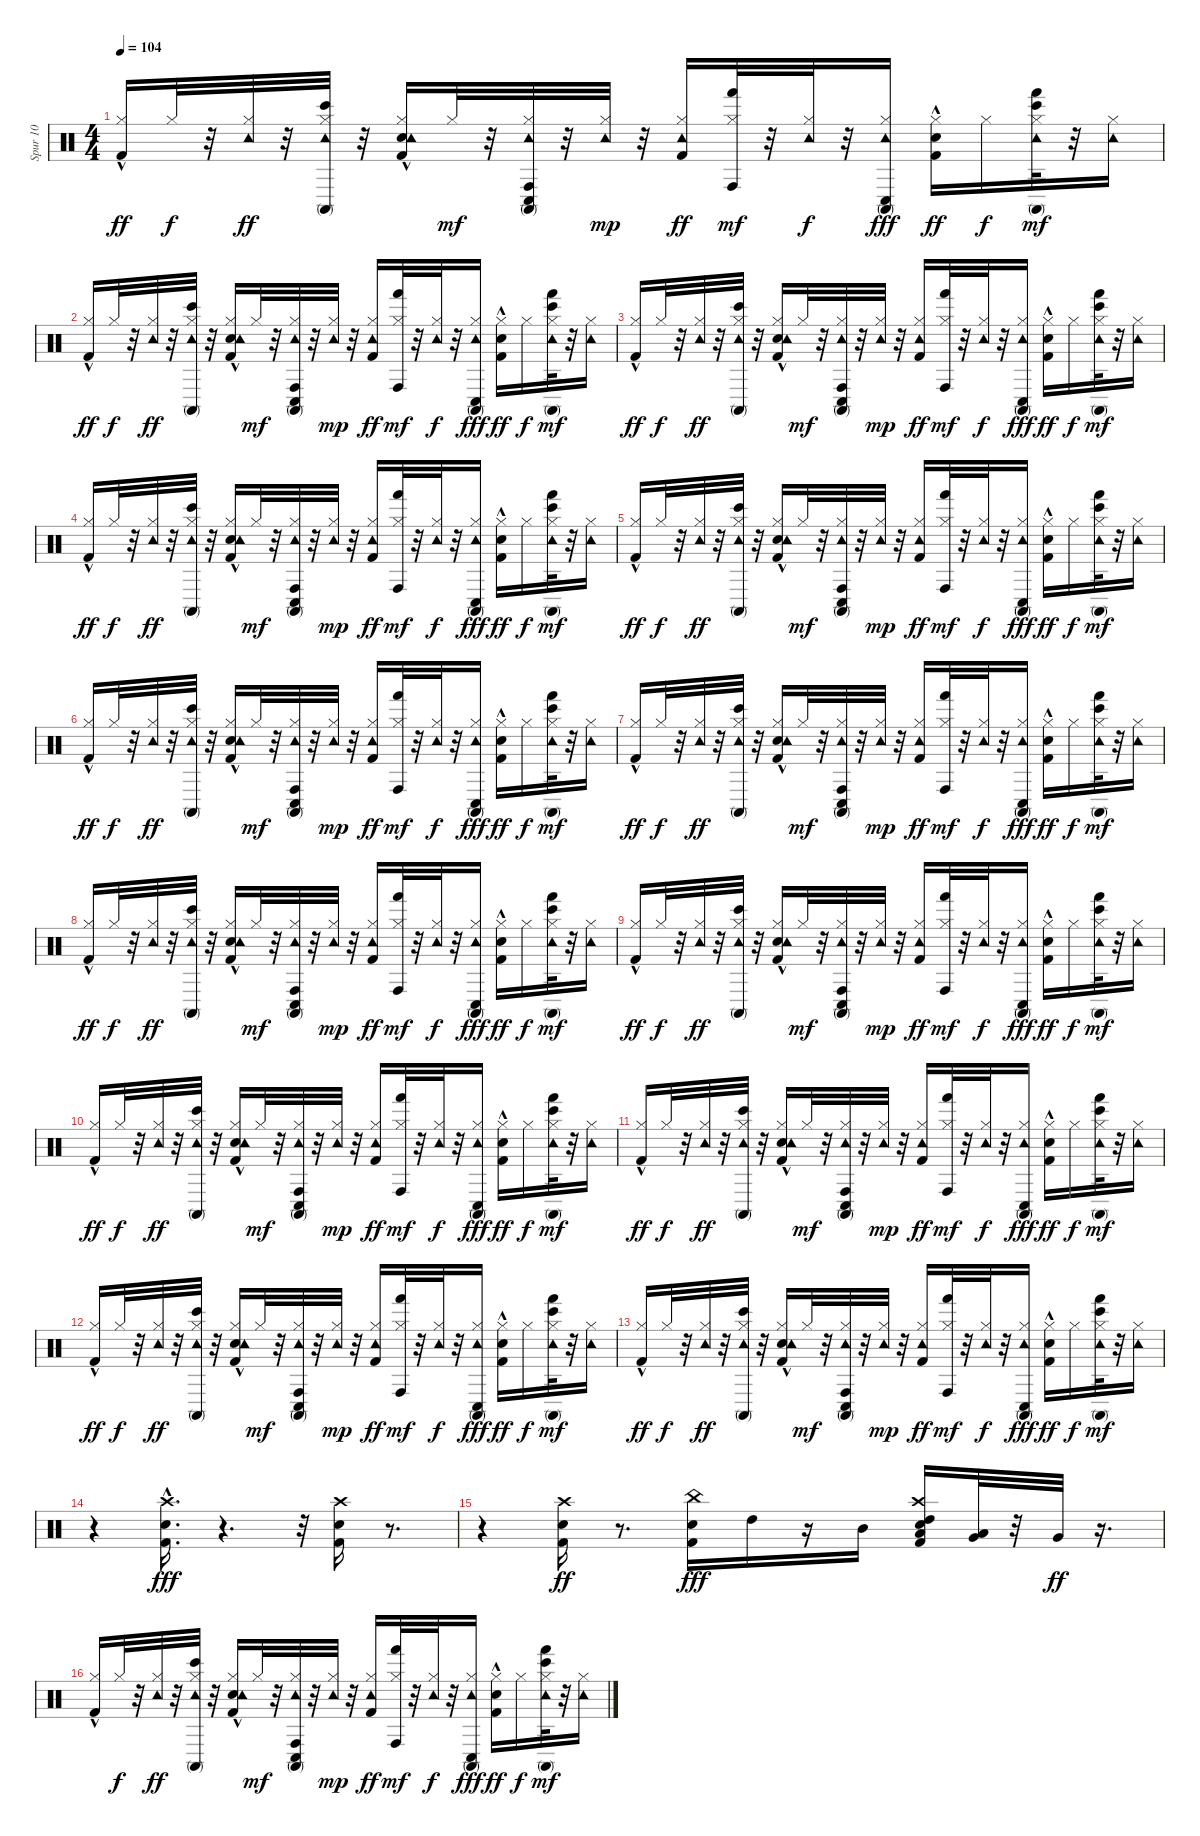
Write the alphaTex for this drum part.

\track ("Spur 10" "Spur 10") {instrument percussion}
\staff {score}
\articulation defaults
\ts (4 4)
\tempo 104
\clef neutral
\ks c
("Kick (hit) 2"{hac} "Hi-Hat (closed)").16{dy ff} "Hi-Hat (closed)".32{dy f} r.32 ("Tambourine (hit)" "Hi-Hat (closed)").32{dy ff} r.32 ("Bongo High (hit)" "Conga high (mute)" "Tambourine (hit)" "Hi-Hat (closed)").32 r.32 ("Electric Snare (hit)" "Kick (hit) 2"{hac} "Tambourine (hit)" "Hi-Hat (closed)").16 "Hi-Hat (closed)".32{dy mf} r.32 ("Conga high (hit)" "Conga low (hit)" "Conga high (mute)" "Tambourine (hit)" "Hi-Hat (closed)").32 r.32 ("Tambourine (hit)" "Hi-Hat (closed)").32{dy mp} r.32 ("Kick (hit) 2" "Tambourine (hit)" "Hi-Hat (closed)").16{dy ff} ("Hand (hit)" "Conga high (hit)" "Hi-Hat (closed)").32{dy mf} r.32 ("Tambourine (hit)" "Hi-Hat (closed)").32{dy f} r.32 ("Conga high (mute)" "Conga low (hit)" "Tambourine (hit)" "Hi-Hat (closed)").16{dy fff} ("Electric Snare (hit)"{hac} "Kick (hit) 2" "Hi-Hat (closed)").16{dy ff} "Hi-Hat (closed)".16{dy f} ("Hand (hit)" "Bongo High (hit)" "Conga high (mute)" "Tambourine (hit)" "Hi-Hat (closed)").32{dy mf} r.32 ("Tambourine (hit)" "Hi-Hat (closed)").16 |
("Kick (hit) 2"{hac} "Hi-Hat (closed)").16{dy ff} "Hi-Hat (closed)".32{dy f} r.32 ("Tambourine (hit)" "Hi-Hat (closed)").32{dy ff} r.32 ("Bongo High (hit)" "Conga high (mute)" "Tambourine (hit)" "Hi-Hat (closed)").32 r.32 ("Electric Snare (hit)" "Kick (hit) 2"{hac} "Tambourine (hit)" "Hi-Hat (closed)").16 "Hi-Hat (closed)".32{dy mf} r.32 ("Conga high (hit)" "Conga low (hit)" "Conga high (mute)" "Tambourine (hit)" "Hi-Hat (closed)").32 r.32 ("Tambourine (hit)" "Hi-Hat (closed)").32{dy mp} r.32 ("Kick (hit) 2" "Tambourine (hit)" "Hi-Hat (closed)").16{dy ff} ("Hand (hit)" "Conga high (hit)" "Hi-Hat (closed)").32{dy mf} r.32 ("Tambourine (hit)" "Hi-Hat (closed)").32{dy f} r.32 ("Conga high (mute)" "Conga low (hit)" "Tambourine (hit)" "Hi-Hat (closed)").16{dy fff} ("Electric Snare (hit)"{hac} "Kick (hit) 2" "Hi-Hat (closed)").16{dy ff} "Hi-Hat (closed)".16{dy f} ("Hand (hit)" "Bongo High (hit)" "Conga high (mute)" "Tambourine (hit)" "Hi-Hat (closed)").32{dy mf} r.32 ("Tambourine (hit)" "Hi-Hat (closed)").16 |
("Kick (hit) 2"{hac} "Hi-Hat (closed)").16{dy ff} "Hi-Hat (closed)".32{dy f} r.32 ("Tambourine (hit)" "Hi-Hat (closed)").32{dy ff} r.32 ("Bongo High (hit)" "Conga high (mute)" "Tambourine (hit)" "Hi-Hat (closed)").32 r.32 ("Electric Snare (hit)" "Kick (hit) 2"{hac} "Tambourine (hit)" "Hi-Hat (closed)").16 "Hi-Hat (closed)".32{dy mf} r.32 ("Conga high (hit)" "Conga low (hit)" "Conga high (mute)" "Tambourine (hit)" "Hi-Hat (closed)").32 r.32 ("Tambourine (hit)" "Hi-Hat (closed)").32{dy mp} r.32 ("Kick (hit) 2" "Tambourine (hit)" "Hi-Hat (closed)").16{dy ff} ("Hand (hit)" "Conga high (hit)" "Hi-Hat (closed)").32{dy mf} r.32 ("Tambourine (hit)" "Hi-Hat (closed)").32{dy f} r.32 ("Conga high (mute)" "Conga low (hit)" "Tambourine (hit)" "Hi-Hat (closed)").16{dy fff} ("Electric Snare (hit)"{hac} "Kick (hit) 2" "Hi-Hat (closed)").16{dy ff} "Hi-Hat (closed)".16{dy f} ("Hand (hit)" "Bongo High (hit)" "Conga high (mute)" "Tambourine (hit)" "Hi-Hat (closed)").32{dy mf} r.32 ("Tambourine (hit)" "Hi-Hat (closed)").16 |
("Kick (hit) 2"{hac} "Hi-Hat (closed)").16{dy ff} "Hi-Hat (closed)".32{dy f} r.32 ("Tambourine (hit)" "Hi-Hat (closed)").32{dy ff} r.32 ("Bongo High (hit)" "Conga high (mute)" "Tambourine (hit)" "Hi-Hat (closed)").32 r.32 ("Electric Snare (hit)" "Kick (hit) 2"{hac} "Tambourine (hit)" "Hi-Hat (closed)").16 "Hi-Hat (closed)".32{dy mf} r.32 ("Conga high (hit)" "Conga low (hit)" "Conga high (mute)" "Tambourine (hit)" "Hi-Hat (closed)").32 r.32 ("Tambourine (hit)" "Hi-Hat (closed)").32{dy mp} r.32 ("Kick (hit) 2" "Tambourine (hit)" "Hi-Hat (closed)").16{dy ff} ("Hand (hit)" "Conga high (hit)" "Hi-Hat (closed)").32{dy mf} r.32 ("Tambourine (hit)" "Hi-Hat (closed)").32{dy f} r.32 ("Conga high (mute)" "Conga low (hit)" "Tambourine (hit)" "Hi-Hat (closed)").16{dy fff} ("Electric Snare (hit)"{hac} "Kick (hit) 2" "Hi-Hat (closed)").16{dy ff} "Hi-Hat (closed)".16{dy f} ("Hand (hit)" "Bongo High (hit)" "Conga high (mute)" "Tambourine (hit)" "Hi-Hat (closed)").32{dy mf} r.32 ("Tambourine (hit)" "Hi-Hat (closed)").16 |
("Kick (hit) 2"{hac} "Hi-Hat (closed)").16{dy ff} "Hi-Hat (closed)".32{dy f} r.32 ("Tambourine (hit)" "Hi-Hat (closed)").32{dy ff} r.32 ("Bongo High (hit)" "Conga high (mute)" "Tambourine (hit)" "Hi-Hat (closed)").32 r.32 ("Electric Snare (hit)" "Kick (hit) 2"{hac} "Tambourine (hit)" "Hi-Hat (closed)").16 "Hi-Hat (closed)".32{dy mf} r.32 ("Conga high (hit)" "Conga low (hit)" "Conga high (mute)" "Tambourine (hit)" "Hi-Hat (closed)").32 r.32 ("Tambourine (hit)" "Hi-Hat (closed)").32{dy mp} r.32 ("Kick (hit) 2" "Tambourine (hit)" "Hi-Hat (closed)").16{dy ff} ("Hand (hit)" "Conga high (hit)" "Hi-Hat (closed)").32{dy mf} r.32 ("Tambourine (hit)" "Hi-Hat (closed)").32{dy f} r.32 ("Conga high (mute)" "Conga low (hit)" "Tambourine (hit)" "Hi-Hat (closed)").16{dy fff} ("Electric Snare (hit)"{hac} "Kick (hit) 2" "Hi-Hat (closed)").16{dy ff} "Hi-Hat (closed)".16{dy f} ("Hand (hit)" "Bongo High (hit)" "Conga high (mute)" "Tambourine (hit)" "Hi-Hat (closed)").32{dy mf} r.32 ("Tambourine (hit)" "Hi-Hat (closed)").16 |
("Kick (hit) 2"{hac} "Hi-Hat (closed)").16{dy ff} "Hi-Hat (closed)".32{dy f} r.32 ("Tambourine (hit)" "Hi-Hat (closed)").32{dy ff} r.32 ("Bongo High (hit)" "Conga high (mute)" "Tambourine (hit)" "Hi-Hat (closed)").32 r.32 ("Electric Snare (hit)" "Kick (hit) 2"{hac} "Tambourine (hit)" "Hi-Hat (closed)").16 "Hi-Hat (closed)".32{dy mf} r.32 ("Conga high (hit)" "Conga low (hit)" "Conga high (mute)" "Tambourine (hit)" "Hi-Hat (closed)").32 r.32 ("Tambourine (hit)" "Hi-Hat (closed)").32{dy mp} r.32 ("Kick (hit) 2" "Tambourine (hit)" "Hi-Hat (closed)").16{dy ff} ("Hand (hit)" "Conga high (hit)" "Hi-Hat (closed)").32{dy mf} r.32 ("Tambourine (hit)" "Hi-Hat (closed)").32{dy f} r.32 ("Conga high (mute)" "Conga low (hit)" "Tambourine (hit)" "Hi-Hat (closed)").16{dy fff} ("Electric Snare (hit)"{hac} "Kick (hit) 2" "Hi-Hat (closed)").16{dy ff} "Hi-Hat (closed)".16{dy f} ("Hand (hit)" "Bongo High (hit)" "Conga high (mute)" "Tambourine (hit)" "Hi-Hat (closed)").32{dy mf} r.32 ("Tambourine (hit)" "Hi-Hat (closed)").16 |
("Kick (hit) 2"{hac} "Hi-Hat (closed)").16{dy ff} "Hi-Hat (closed)".32{dy f} r.32 ("Tambourine (hit)" "Hi-Hat (closed)").32{dy ff} r.32 ("Bongo High (hit)" "Conga high (mute)" "Tambourine (hit)" "Hi-Hat (closed)").32 r.32 ("Electric Snare (hit)" "Kick (hit) 2"{hac} "Tambourine (hit)" "Hi-Hat (closed)").16 "Hi-Hat (closed)".32{dy mf} r.32 ("Conga high (hit)" "Conga low (hit)" "Conga high (mute)" "Tambourine (hit)" "Hi-Hat (closed)").32 r.32 ("Tambourine (hit)" "Hi-Hat (closed)").32{dy mp} r.32 ("Kick (hit) 2" "Tambourine (hit)" "Hi-Hat (closed)").16{dy ff} ("Hand (hit)" "Conga high (hit)" "Hi-Hat (closed)").32{dy mf} r.32 ("Tambourine (hit)" "Hi-Hat (closed)").32{dy f} r.32 ("Conga high (mute)" "Conga low (hit)" "Tambourine (hit)" "Hi-Hat (closed)").16{dy fff} ("Electric Snare (hit)"{hac} "Kick (hit) 2" "Hi-Hat (closed)").16{dy ff} "Hi-Hat (closed)".16{dy f} ("Hand (hit)" "Bongo High (hit)" "Conga high (mute)" "Tambourine (hit)" "Hi-Hat (closed)").32{dy mf} r.32 ("Tambourine (hit)" "Hi-Hat (closed)").16 |
("Kick (hit) 2"{hac} "Hi-Hat (closed)").16{dy ff} "Hi-Hat (closed)".32{dy f} r.32 ("Tambourine (hit)" "Hi-Hat (closed)").32{dy ff} r.32 ("Bongo High (hit)" "Conga high (mute)" "Tambourine (hit)" "Hi-Hat (closed)").32 r.32 ("Electric Snare (hit)" "Kick (hit) 2"{hac} "Tambourine (hit)" "Hi-Hat (closed)").16 "Hi-Hat (closed)".32{dy mf} r.32 ("Conga high (hit)" "Conga low (hit)" "Conga high (mute)" "Tambourine (hit)" "Hi-Hat (closed)").32 r.32 ("Tambourine (hit)" "Hi-Hat (closed)").32{dy mp} r.32 ("Kick (hit) 2" "Tambourine (hit)" "Hi-Hat (closed)").16{dy ff} ("Hand (hit)" "Conga high (hit)" "Hi-Hat (closed)").32{dy mf} r.32 ("Tambourine (hit)" "Hi-Hat (closed)").32{dy f} r.32 ("Conga high (mute)" "Conga low (hit)" "Tambourine (hit)" "Hi-Hat (closed)").16{dy fff} ("Electric Snare (hit)"{hac} "Kick (hit) 2" "Hi-Hat (closed)").16{dy ff} "Hi-Hat (closed)".16{dy f} ("Hand (hit)" "Bongo High (hit)" "Conga high (mute)" "Tambourine (hit)" "Hi-Hat (closed)").32{dy mf} r.32 ("Tambourine (hit)" "Hi-Hat (closed)").16 |
("Kick (hit) 2"{hac} "Hi-Hat (closed)").16{dy ff} "Hi-Hat (closed)".32{dy f} r.32 ("Tambourine (hit)" "Hi-Hat (closed)").32{dy ff} r.32 ("Bongo High (hit)" "Conga high (mute)" "Tambourine (hit)" "Hi-Hat (closed)").32 r.32 ("Electric Snare (hit)" "Kick (hit) 2"{hac} "Tambourine (hit)" "Hi-Hat (closed)").16 "Hi-Hat (closed)".32{dy mf} r.32 ("Conga high (hit)" "Conga low (hit)" "Conga high (mute)" "Tambourine (hit)" "Hi-Hat (closed)").32 r.32 ("Tambourine (hit)" "Hi-Hat (closed)").32{dy mp} r.32 ("Kick (hit) 2" "Tambourine (hit)" "Hi-Hat (closed)").16{dy ff} ("Hand (hit)" "Conga high (hit)" "Hi-Hat (closed)").32{dy mf} r.32 ("Tambourine (hit)" "Hi-Hat (closed)").32{dy f} r.32 ("Conga high (mute)" "Conga low (hit)" "Tambourine (hit)" "Hi-Hat (closed)").16{dy fff} ("Electric Snare (hit)"{hac} "Kick (hit) 2" "Hi-Hat (closed)").16{dy ff} "Hi-Hat (closed)".16{dy f} ("Hand (hit)" "Bongo High (hit)" "Conga high (mute)" "Tambourine (hit)" "Hi-Hat (closed)").32{dy mf} r.32 ("Tambourine (hit)" "Hi-Hat (closed)").16 |
("Kick (hit) 2"{hac} "Hi-Hat (closed)").16{dy ff} "Hi-Hat (closed)".32{dy f} r.32 ("Tambourine (hit)" "Hi-Hat (closed)").32{dy ff} r.32 ("Bongo High (hit)" "Conga high (mute)" "Tambourine (hit)" "Hi-Hat (closed)").32 r.32 ("Electric Snare (hit)" "Kick (hit) 2"{hac} "Tambourine (hit)" "Hi-Hat (closed)").16 "Hi-Hat (closed)".32{dy mf} r.32 ("Conga high (hit)" "Conga low (hit)" "Conga high (mute)" "Tambourine (hit)" "Hi-Hat (closed)").32 r.32 ("Tambourine (hit)" "Hi-Hat (closed)").32{dy mp} r.32 ("Kick (hit) 2" "Tambourine (hit)" "Hi-Hat (closed)").16{dy ff} ("Hand (hit)" "Conga high (hit)" "Hi-Hat (closed)").32{dy mf} r.32 ("Tambourine (hit)" "Hi-Hat (closed)").32{dy f} r.32 ("Conga high (mute)" "Conga low (hit)" "Tambourine (hit)" "Hi-Hat (closed)").16{dy fff} ("Electric Snare (hit)"{hac} "Kick (hit) 2" "Hi-Hat (closed)").16{dy ff} "Hi-Hat (closed)".16{dy f} ("Hand (hit)" "Bongo High (hit)" "Conga high (mute)" "Tambourine (hit)" "Hi-Hat (closed)").32{dy mf} r.32 ("Tambourine (hit)" "Hi-Hat (closed)").16 |
("Kick (hit) 2"{hac} "Hi-Hat (closed)").16{dy ff} "Hi-Hat (closed)".32{dy f} r.32 ("Tambourine (hit)" "Hi-Hat (closed)").32{dy ff} r.32 ("Bongo High (hit)" "Conga high (mute)" "Tambourine (hit)" "Hi-Hat (closed)").32 r.32 ("Electric Snare (hit)" "Kick (hit) 2"{hac} "Tambourine (hit)" "Hi-Hat (closed)").16 "Hi-Hat (closed)".32{dy mf} r.32 ("Conga high (hit)" "Conga low (hit)" "Conga high (mute)" "Tambourine (hit)" "Hi-Hat (closed)").32 r.32 ("Tambourine (hit)" "Hi-Hat (closed)").32{dy mp} r.32 ("Kick (hit) 2" "Tambourine (hit)" "Hi-Hat (closed)").16{dy ff} ("Hand (hit)" "Conga high (hit)" "Hi-Hat (closed)").32{dy mf} r.32 ("Tambourine (hit)" "Hi-Hat (closed)").32{dy f} r.32 ("Conga high (mute)" "Conga low (hit)" "Tambourine (hit)" "Hi-Hat (closed)").16{dy fff} ("Electric Snare (hit)"{hac} "Kick (hit) 2" "Hi-Hat (closed)").16{dy ff} "Hi-Hat (closed)".16{dy f} ("Hand (hit)" "Bongo High (hit)" "Conga high (mute)" "Tambourine (hit)" "Hi-Hat (closed)").32{dy mf} r.32 ("Tambourine (hit)" "Hi-Hat (closed)").16 |
("Kick (hit) 2"{hac} "Hi-Hat (closed)").16{dy ff} "Hi-Hat (closed)".32{dy f} r.32 ("Tambourine (hit)" "Hi-Hat (closed)").32{dy ff} r.32 ("Bongo High (hit)" "Conga high (mute)" "Tambourine (hit)" "Hi-Hat (closed)").32 r.32 ("Electric Snare (hit)" "Kick (hit) 2"{hac} "Tambourine (hit)" "Hi-Hat (closed)").16 "Hi-Hat (closed)".32{dy mf} r.32 ("Conga high (hit)" "Conga low (hit)" "Conga high (mute)" "Tambourine (hit)" "Hi-Hat (closed)").32 r.32 ("Tambourine (hit)" "Hi-Hat (closed)").32{dy mp} r.32 ("Kick (hit) 2" "Tambourine (hit)" "Hi-Hat (closed)").16{dy ff} ("Hand (hit)" "Conga high (hit)" "Hi-Hat (closed)").32{dy mf} r.32 ("Tambourine (hit)" "Hi-Hat (closed)").32{dy f} r.32 ("Conga high (mute)" "Conga low (hit)" "Tambourine (hit)" "Hi-Hat (closed)").16{dy fff} ("Electric Snare (hit)"{hac} "Kick (hit) 2" "Hi-Hat (closed)").16{dy ff} "Hi-Hat (closed)".16{dy f} ("Hand (hit)" "Bongo High (hit)" "Conga high (mute)" "Tambourine (hit)" "Hi-Hat (closed)").32{dy mf} r.32 ("Tambourine (hit)" "Hi-Hat (closed)").16 |
("Kick (hit) 2"{hac} "Hi-Hat (closed)").16{dy ff} "Hi-Hat (closed)".32{dy f} r.32 ("Tambourine (hit)" "Hi-Hat (closed)").32{dy ff} r.32 ("Bongo High (hit)" "Conga high (mute)" "Tambourine (hit)" "Hi-Hat (closed)").32 r.32 ("Electric Snare (hit)" "Kick (hit) 2"{hac} "Tambourine (hit)" "Hi-Hat (closed)").16 "Hi-Hat (closed)".32{dy mf} r.32 ("Conga high (hit)" "Conga low (hit)" "Conga high (mute)" "Tambourine (hit)" "Hi-Hat (closed)").32 r.32 ("Tambourine (hit)" "Hi-Hat (closed)").32{dy mp} r.32 ("Kick (hit) 2" "Tambourine (hit)" "Hi-Hat (closed)").16{dy ff} ("Hand (hit)" "Conga high (hit)" "Hi-Hat (closed)").32{dy mf} r.32 ("Tambourine (hit)" "Hi-Hat (closed)").32{dy f} r.32 ("Conga high (mute)" "Conga low (hit)" "Tambourine (hit)" "Hi-Hat (closed)").16{dy fff} ("Electric Snare (hit)"{hac} "Kick (hit) 2" "Hi-Hat (closed)").16{dy ff} "Hi-Hat (closed)".16{dy f} ("Hand (hit)" "Bongo High (hit)" "Conga high (mute)" "Tambourine (hit)" "Hi-Hat (closed)").32{dy mf} r.32 ("Tambourine (hit)" "Hi-Hat (closed)").16 |
r.4 ("Electric Snare (hit)"{hac} "Kick (hit) 2"{hac} "Crash high (hit)").16{d dy fff} r.4{d} r.32 ("Electric Snare (hit)" "Crash high (hit)" "Kick (hit) 2").16 r.8{d} |
r.4 ("Electric Snare (hit)" "Kick (hit) 2" "Crash high (hit)").16{dy ff} r.8{d} ("China (hit)" "Kick (hit) 2" "Electric Snare (hit)").16{dy fff} "High Tom (hit)".16 r.16 "Mid Tom (hit)".16 ("Crash high (hit)" "High Tom (hit)" "Low Tom (hit)" "Electric Snare (hit)" "Kick (hit) 2").16 ("Low Floor Tom (hit)" "Very Low Tom (hit)").32 r.32 "Very Low Tom (hit)".32{dy ff} r.16{d} |
("Kick (hit) 2"{hac} "Hi-Hat (closed)").16 "Hi-Hat (closed)".32{dy f} r.32 ("Tambourine (hit)" "Hi-Hat (closed)").32{dy ff} r.32 ("Bongo High (hit)" "Conga high (mute)" "Tambourine (hit)" "Hi-Hat (closed)").32 r.32 ("Electric Snare (hit)" "Kick (hit) 2"{hac} "Tambourine (hit)" "Hi-Hat (closed)").16 "Hi-Hat (closed)".32{dy mf} r.32 ("Conga high (hit)" "Conga low (hit)" "Conga high (mute)" "Tambourine (hit)" "Hi-Hat (closed)").32 r.32 ("Tambourine (hit)" "Hi-Hat (closed)").32{dy mp} r.32 ("Kick (hit) 2" "Tambourine (hit)" "Hi-Hat (closed)").16{dy ff} ("Hand (hit)" "Conga high (hit)" "Hi-Hat (closed)").32{dy mf} r.32 ("Tambourine (hit)" "Hi-Hat (closed)").32{dy f} r.32 ("Conga high (mute)" "Conga low (hit)" "Tambourine (hit)" "Hi-Hat (closed)").16{dy fff} ("Electric Snare (hit)"{hac} "Kick (hit) 2" "Hi-Hat (closed)").16{dy ff} "Hi-Hat (closed)".16{dy f} ("Hand (hit)" "Bongo High (hit)" "Conga high (mute)" "Tambourine (hit)" "Hi-Hat (closed)").32{dy mf} r.32 ("Tambourine (hit)" "Hi-Hat (closed)").16
